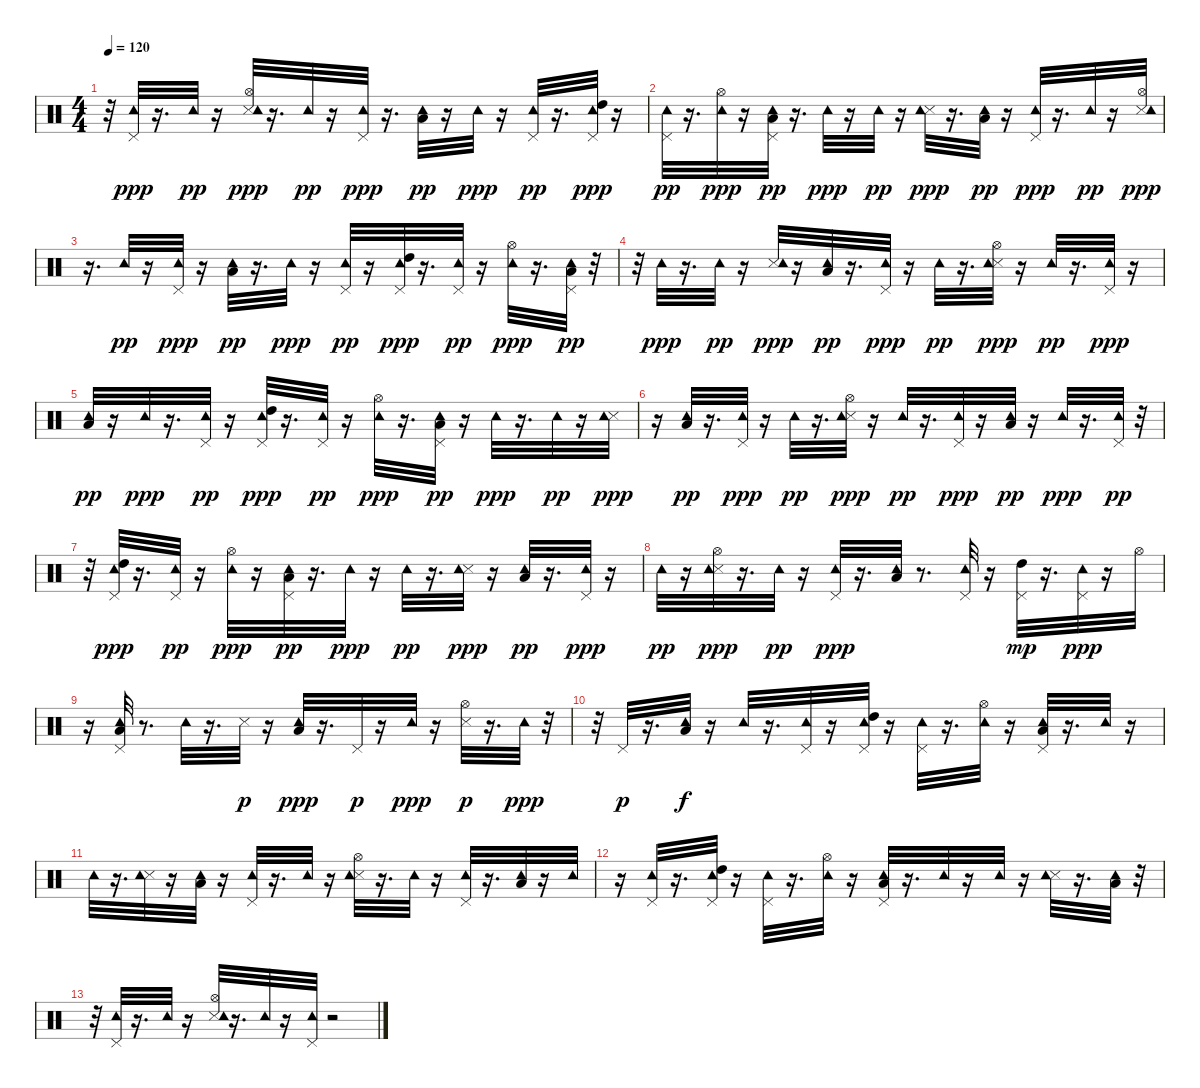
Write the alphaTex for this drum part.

\track "" {instrument percussion}
\staff {score}
\articulation defaults
\ts (4 4)
\tempo 120
\clef neutral
\ks c
r.32{dy pp} ("Pedal Hi-Hat (hit)" "Tambourine (hit)").32{dy ppp} r.16{d} "Tambourine (hit)".32{dy pp} r.16 ("Hi-Hat (open)" "Snare (side stick) 3" "Tambourine (hit)").32{dy ppp} r.16{d} "Tambourine (hit)".32{dy pp} r.16 ("Pedal Hi-Hat (hit)" "Tambourine (hit)").32{dy ppp} r.16{d} ("Low Floor Tom (hit)" "Tambourine (hit)").32{dy pp} r.16 "Tambourine (hit)".32{dy ppp} r.16 ("Pedal Hi-Hat (hit)" "Tambourine (hit)").32{dy pp} r.16{d} ("Pedal Hi-Hat (hit)" "High Tom (hit)" "Tambourine (hit)").32{dy ppp} r.16 |
("Pedal Hi-Hat (hit)" "Tambourine (hit)").32{dy pp} r.16{d} ("Hi-Hat (open)" "Tambourine (hit)").32{dy ppp} r.16 ("Pedal Hi-Hat (hit)" "Low Tom (hit)" "Tambourine (hit)").32{dy pp} r.16{d} "Tambourine (hit)".32{dy ppp} r.16 "Tambourine (hit)".32{dy pp} r.16 ("Snare (side stick) 3" "Tambourine (hit)").32{dy ppp} r.16{d} ("Low Floor Tom (hit)" "Tambourine (hit)").32{dy pp} r.16 ("Pedal Hi-Hat (hit)" "Tambourine (hit)").32{dy ppp} r.16{d} "Tambourine (hit)".32{dy pp} r.16 ("Hi-Hat (open)" "Snare (side stick) 3" "Tambourine (hit)").32{dy ppp} |
r.16{d} "Tambourine (hit)".32{dy pp} r.16 ("Pedal Hi-Hat (hit)" "Tambourine (hit)").32{dy ppp} r.16 ("Low Floor Tom (hit)" "Tambourine (hit)").32{dy pp} r.16{d} "Tambourine (hit)".32{dy ppp} r.16 ("Pedal Hi-Hat (hit)" "Tambourine (hit)").32{dy pp} r.16 ("Pedal Hi-Hat (hit)" "High Tom (hit)" "Tambourine (hit)").32{dy ppp} r.16{d} ("Pedal Hi-Hat (hit)" "Tambourine (hit)").32{dy pp} r.16 ("Hi-Hat (open)" "Tambourine (hit)").32{dy ppp} r.16{d} ("Pedal Hi-Hat (hit)" "Low Tom (hit)" "Tambourine (hit)").32{dy pp} r.32 |
r.32 "Tambourine (hit)".32{dy ppp} r.16{d} "Tambourine (hit)".32{dy pp} r.16 ("Snare (side stick) 3" "Tambourine (hit)").32{dy ppp} r.16 ("Low Floor Tom (hit)" "Tambourine (hit)").32{dy pp} r.16{d} ("Pedal Hi-Hat (hit)" "Tambourine (hit)").32{dy ppp} r.16 "Tambourine (hit)".32{dy pp} r.16{d} ("Hi-Hat (open)" "Snare (side stick) 3" "Tambourine (hit)").32{dy ppp} r.16 "Tambourine (hit)".32{dy pp} r.16{d} ("Pedal Hi-Hat (hit)" "Tambourine (hit)").32{dy ppp} r.16 |
("Low Floor Tom (hit)" "Tambourine (hit)").32{dy pp} r.16 "Tambourine (hit)".32{dy ppp} r.16{d} ("Pedal Hi-Hat (hit)" "Tambourine (hit)").32{dy pp} r.16 ("Pedal Hi-Hat (hit)" "High Tom (hit)" "Tambourine (hit)").32{dy ppp} r.16{d} ("Pedal Hi-Hat (hit)" "Tambourine (hit)").32{dy pp} r.16 ("Hi-Hat (open)" "Tambourine (hit)").32{dy ppp} r.16{d} ("Pedal Hi-Hat (hit)" "Low Tom (hit)" "Tambourine (hit)").32{dy pp} r.16 "Tambourine (hit)".32{dy ppp} r.16{d} "Tambourine (hit)".32{dy pp} r.16 ("Snare (side stick) 3" "Tambourine (hit)").32{dy ppp} |
r.16 ("Low Floor Tom (hit)" "Tambourine (hit)").32{dy pp} r.16{d} ("Pedal Hi-Hat (hit)" "Tambourine (hit)").32{dy ppp} r.16 "Tambourine (hit)".32{dy pp} r.16{d} ("Hi-Hat (open)" "Snare (side stick) 3" "Tambourine (hit)").32{dy ppp} r.16 "Tambourine (hit)".32{dy pp} r.16{d} ("Pedal Hi-Hat (hit)" "Tambourine (hit)").32{dy ppp} r.16 ("Low Floor Tom (hit)" "Tambourine (hit)").32{dy pp} r.16 "Tambourine (hit)".32{dy ppp} r.16{d} ("Pedal Hi-Hat (hit)" "Tambourine (hit)").32{dy pp} r.32 |
r.32 ("Pedal Hi-Hat (hit)" "High Tom (hit)" "Tambourine (hit)").32{dy ppp} r.16{d} ("Pedal Hi-Hat (hit)" "Tambourine (hit)").32{dy pp} r.16 ("Hi-Hat (open)" "Tambourine (hit)").32{dy ppp} r.16 ("Pedal Hi-Hat (hit)" "Low Tom (hit)" "Tambourine (hit)").32{dy pp} r.16{d} "Tambourine (hit)".32{dy ppp} r.16 "Tambourine (hit)".32{dy pp} r.16{d} ("Snare (side stick) 3" "Tambourine (hit)").32{dy ppp} r.16 ("Low Floor Tom (hit)" "Tambourine (hit)").32{dy pp} r.16{d} ("Pedal Hi-Hat (hit)" "Tambourine (hit)").32{dy ppp} r.16 |
"Tambourine (hit)".32{dy pp} r.16 ("Hi-Hat (open)" "Snare (side stick) 3" "Tambourine (hit)").32{dy ppp} r.16{d} "Tambourine (hit)".32{dy pp} r.16 ("Pedal Hi-Hat (hit)" "Tambourine (hit)").32{dy ppp} r.16{d} ("Low Floor Tom (hit)" "Tambourine (hit)").32 r.8{d} ("Pedal Hi-Hat (hit)" "Tambourine (hit)").32 r.16 ("Pedal Hi-Hat (hit)" "High Tom (hit)").32{dy mp} r.16{d} ("Pedal Hi-Hat (hit)" "Tambourine (hit)").32{dy ppp} r.16 "Hi-Hat (open)".32 |
r.16 ("Pedal Hi-Hat (hit)" "Low Tom (hit)" "Tambourine (hit)").32 r.8{d} "Tambourine (hit)".32 r.16{d} "Snare (side stick) 3".32{dy p} r.16 ("Low Floor Tom (hit)" "Tambourine (hit)").32{dy ppp} r.16{d} "Pedal Hi-Hat (hit)".32{dy p} r.16 "Tambourine (hit)".32{dy ppp} r.16 ("Hi-Hat (open)" "Snare (side stick) 3").32{dy p} r.16{d} "Tambourine (hit)".32{dy ppp} r.32 |
r.32 "Pedal Hi-Hat (hit)".32{dy p} r.16{d} ("Low Floor Tom (hit)" "Tambourine (hit)").32{dy f} r.16 "Tambourine (hit)".32 r.16{d} ("Pedal Hi-Hat (hit)" "Tambourine (hit)").32 r.16 ("Pedal Hi-Hat (hit)" "High Tom (hit)" "Tambourine (hit)").32 r.16 ("Pedal Hi-Hat (hit)" "Tambourine (hit)").32 r.16{d} ("Hi-Hat (open)" "Tambourine (hit)").32 r.16 ("Pedal Hi-Hat (hit)" "Low Tom (hit)" "Tambourine (hit)").32 r.16{d} "Tambourine (hit)".32 r.16 |
"Tambourine (hit)".32 r.16{d} ("Snare (side stick) 3" "Tambourine (hit)").32 r.16 ("Low Floor Tom (hit)" "Tambourine (hit)").32 r.16 ("Pedal Hi-Hat (hit)" "Tambourine (hit)").32 r.16{d} "Tambourine (hit)".32 r.16 ("Hi-Hat (open)" "Snare (side stick) 3" "Tambourine (hit)").32 r.16{d} "Tambourine (hit)".32 r.16 ("Pedal Hi-Hat (hit)" "Tambourine (hit)").32 r.16{d} ("Low Floor Tom (hit)" "Tambourine (hit)").32 r.16 "Tambourine (hit)".32 |
r.16 ("Pedal Hi-Hat (hit)" "Tambourine (hit)").32 r.16{d} ("Pedal Hi-Hat (hit)" "High Tom (hit)" "Tambourine (hit)").32 r.16 ("Pedal Hi-Hat (hit)" "Tambourine (hit)").32 r.16{d} ("Hi-Hat (open)" "Tambourine (hit)").32 r.16 ("Pedal Hi-Hat (hit)" "Low Tom (hit)" "Tambourine (hit)").32 r.16{d} "Tambourine (hit)".32 r.16 "Tambourine (hit)".32 r.16 ("Snare (side stick) 3" "Tambourine (hit)").32 r.16{d} ("Low Floor Tom (hit)" "Tambourine (hit)").32 r.32 |
r.32 ("Pedal Hi-Hat (hit)" "Tambourine (hit)").32 r.16{d} "Tambourine (hit)".32 r.16 ("Hi-Hat (open)" "Snare (side stick) 3" "Tambourine (hit)").32 r.16{d} "Tambourine (hit)".32 r.16 ("Pedal Hi-Hat (hit)" "Tambourine (hit)").32 r.2
